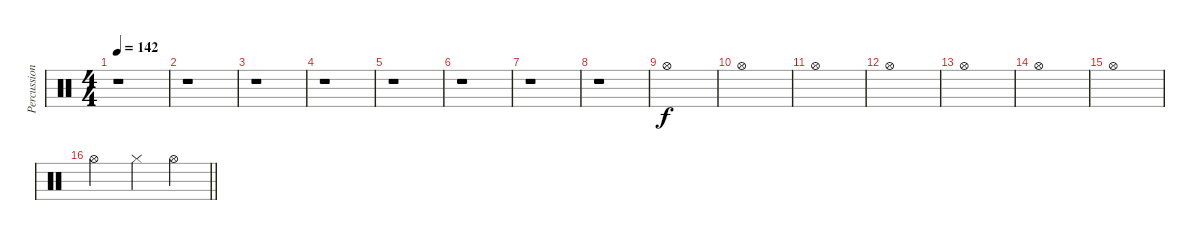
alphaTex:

\track ("Percussions" "Percussion") {instrument percussion}
\staff {score}
\articulation defaults
\ts (4 4)
\tempo 142
\clef neutral
\ks c
r.1{dy f} |
r.1 |
r.1 |
r.1 |
r.1 |
r.1 |
r.1 |
r.1 |
"Hi-Hat (open)".1 |
"Hi-Hat (open)".1 |
"Hi-Hat (open)".1 |
"Hi-Hat (open)".1 |
"Hi-Hat (open)".1 |
"Hi-Hat (open)".1 |
"Hi-Hat (open)".1 |
\barLineRight lightlight "Hi-Hat (open)".2 "Hi-Hat (closed)".4 "Hi-Hat (open)".4
